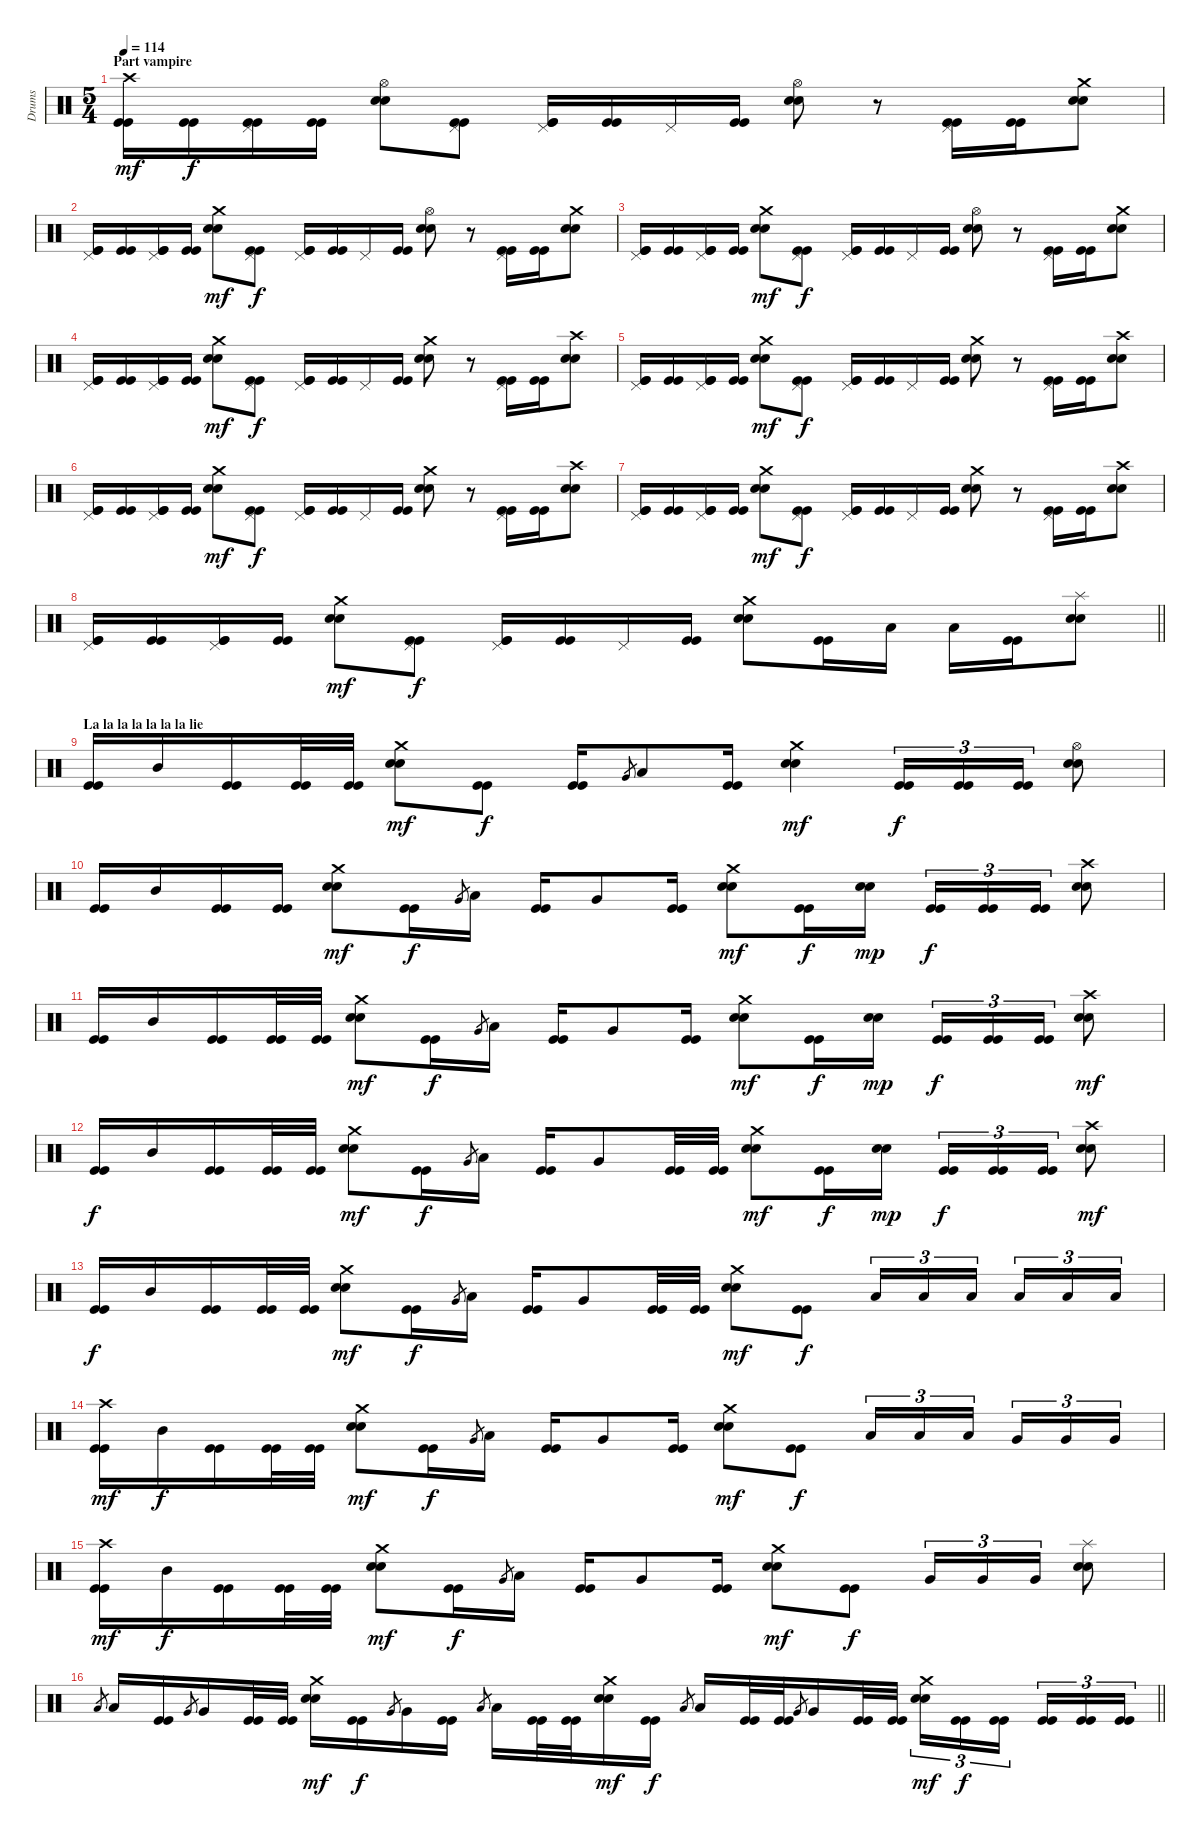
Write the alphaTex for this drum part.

\track ("Drums" "Drums") {instrument percussion}
\staff {score}
\articulation defaults
\ts (5 4)
\section ("" "Part vampire")
\tempo 114
\clef neutral
\ks c
("Kick (hit)" "Kick (hit)" "Crash high (hit)").16{dy mf} ("Kick (hit)" "Kick (hit)").16{dy f} ("Kick (hit)" "Kick (hit)" "Pedal Hi-Hat (hit)").16 ("Kick (hit)" "Kick (hit)").16 ("Electric Snare (hit)" "Snare (hit) 2" "Hi-Hat (open)").8 ("Kick (hit)" "Kick (hit)" "Pedal Hi-Hat (hit)").8 ("Kick (hit)" "Kick (hit)" "Pedal Hi-Hat (hit)").16 ("Kick (hit)" "Kick (hit)").16 "Pedal Hi-Hat (hit)".16 ("Kick (hit)" "Kick (hit)").16 ("Snare (hit) 2" "Electric Snare (hit)" "Hi-Hat (open)").8 r.8{volume 0} ("Kick (hit)" "Kick (hit)" "Pedal Hi-Hat (hit)").16{volume 16} ("Kick (hit)" "Kick (hit)").16 ("Snare (hit) 2" "Electric Snare (hit)" "Crash medium (hit)").8 |
("Kick (hit)" "Kick (hit)" "Pedal Hi-Hat (hit)").16 ("Kick (hit)" "Kick (hit)").16 ("Kick (hit)" "Kick (hit)" "Pedal Hi-Hat (hit)").16 ("Kick (hit)" "Kick (hit)").16 ("Electric Snare (hit)" "Snare (hit) 2" "Crash medium (hit)").8{dy mf} ("Kick (hit)" "Kick (hit)" "Pedal Hi-Hat (hit)").8{dy f} ("Kick (hit)" "Kick (hit)" "Pedal Hi-Hat (hit)").16 ("Kick (hit)" "Kick (hit)").16 "Pedal Hi-Hat (hit)".16 ("Kick (hit)" "Kick (hit)").16 ("Snare (hit) 2" "Electric Snare (hit)" "Hi-Hat (open)").8 r.8{volume 0} ("Kick (hit)" "Kick (hit)" "Pedal Hi-Hat (hit)").16{volume 16} ("Kick (hit)" "Kick (hit)").16 ("Snare (hit) 2" "Electric Snare (hit)" "Crash medium (hit)").8 |
("Kick (hit)" "Kick (hit)" "Pedal Hi-Hat (hit)").16 ("Kick (hit)" "Kick (hit)").16 ("Kick (hit)" "Kick (hit)" "Pedal Hi-Hat (hit)").16 ("Kick (hit)" "Kick (hit)").16 ("Electric Snare (hit)" "Snare (hit) 2" "Crash medium (hit)").8{dy mf} ("Kick (hit)" "Kick (hit)" "Pedal Hi-Hat (hit)").8{dy f} ("Kick (hit)" "Kick (hit)" "Pedal Hi-Hat (hit)").16 ("Kick (hit)" "Kick (hit)").16 "Pedal Hi-Hat (hit)".16 ("Kick (hit)" "Kick (hit)").16 ("Snare (hit) 2" "Electric Snare (hit)" "Hi-Hat (open)").8 r.8{volume 0} ("Kick (hit)" "Kick (hit)" "Pedal Hi-Hat (hit)").16{volume 16} ("Kick (hit)" "Kick (hit)").16 ("Snare (hit) 2" "Electric Snare (hit)" "Crash medium (hit)").8 |
("Kick (hit)" "Kick (hit)" "Pedal Hi-Hat (hit)").16 ("Kick (hit)" "Kick (hit)").16 ("Kick (hit)" "Kick (hit)" "Pedal Hi-Hat (hit)").16 ("Kick (hit)" "Kick (hit)").16 ("Electric Snare (hit)" "Snare (hit) 2" "Crash medium (hit)").8{dy mf} ("Kick (hit)" "Kick (hit)" "Pedal Hi-Hat (hit)").8{dy f} ("Kick (hit)" "Kick (hit)" "Pedal Hi-Hat (hit)").16 ("Kick (hit)" "Kick (hit)").16 "Pedal Hi-Hat (hit)".16 ("Kick (hit)" "Kick (hit)").16 ("Snare (hit) 2" "Electric Snare (hit)" "Crash medium (hit)").8 r.8{volume 0} ("Kick (hit)" "Kick (hit)" "Pedal Hi-Hat (hit)").16{volume 16} ("Kick (hit)" "Kick (hit)").16 ("Snare (hit) 2" "Electric Snare (hit)" "Crash high (hit)").8 |
("Kick (hit)" "Kick (hit)" "Pedal Hi-Hat (hit)").16 ("Kick (hit)" "Kick (hit)").16 ("Kick (hit)" "Kick (hit)" "Pedal Hi-Hat (hit)").16 ("Kick (hit)" "Kick (hit)").16 ("Electric Snare (hit)" "Snare (hit) 2" "Crash medium (hit)").8{dy mf} ("Kick (hit)" "Kick (hit)" "Pedal Hi-Hat (hit)").8{dy f} ("Kick (hit)" "Kick (hit)" "Pedal Hi-Hat (hit)").16 ("Kick (hit)" "Kick (hit)").16 "Pedal Hi-Hat (hit)".16 ("Kick (hit)" "Kick (hit)").16 ("Snare (hit) 2" "Electric Snare (hit)" "Crash medium (hit)").8 r.8{volume 0} ("Kick (hit)" "Kick (hit)" "Pedal Hi-Hat (hit)").16{volume 16} ("Kick (hit)" "Kick (hit)").16 ("Snare (hit) 2" "Electric Snare (hit)" "Crash high (hit)").8 |
("Kick (hit)" "Kick (hit)" "Pedal Hi-Hat (hit)").16 ("Kick (hit)" "Kick (hit)").16 ("Kick (hit)" "Kick (hit)" "Pedal Hi-Hat (hit)").16 ("Kick (hit)" "Kick (hit)").16 ("Electric Snare (hit)" "Snare (hit) 2" "Crash medium (hit)").8{dy mf} ("Kick (hit)" "Kick (hit)" "Pedal Hi-Hat (hit)").8{dy f} ("Kick (hit)" "Kick (hit)" "Pedal Hi-Hat (hit)").16 ("Kick (hit)" "Kick (hit)").16 "Pedal Hi-Hat (hit)".16 ("Kick (hit)" "Kick (hit)").16 ("Snare (hit) 2" "Electric Snare (hit)" "Crash medium (hit)").8 r.8{volume 0} ("Kick (hit)" "Kick (hit)" "Pedal Hi-Hat (hit)").16{volume 16} ("Kick (hit)" "Kick (hit)").16 ("Snare (hit) 2" "Electric Snare (hit)" "Crash high (hit)").8 |
("Kick (hit)" "Kick (hit)" "Pedal Hi-Hat (hit)").16 ("Kick (hit)" "Kick (hit)").16 ("Kick (hit)" "Kick (hit)" "Pedal Hi-Hat (hit)").16 ("Kick (hit)" "Kick (hit)").16 ("Electric Snare (hit)" "Snare (hit) 2" "Crash medium (hit)").8{dy mf} ("Kick (hit)" "Kick (hit)" "Pedal Hi-Hat (hit)").8{dy f} ("Kick (hit)" "Kick (hit)" "Pedal Hi-Hat (hit)").16 ("Kick (hit)" "Kick (hit)").16 "Pedal Hi-Hat (hit)".16 ("Kick (hit)" "Kick (hit)").16 ("Snare (hit) 2" "Electric Snare (hit)" "Crash medium (hit)").8 r.8{volume 0} ("Kick (hit)" "Kick (hit)" "Pedal Hi-Hat (hit)").16{volume 16} ("Kick (hit)" "Kick (hit)").16 ("Snare (hit) 2" "Electric Snare (hit)" "Crash high (hit)").8 |
\barLineRight lightlight
("Kick (hit)" "Kick (hit)" "Pedal Hi-Hat (hit)").16 ("Kick (hit)" "Kick (hit)").16 ("Kick (hit)" "Kick (hit)" "Pedal Hi-Hat (hit)").16 ("Kick (hit)" "Kick (hit)").16 ("Electric Snare (hit)" "Snare (hit) 2" "Crash medium (hit)").8{dy mf} ("Kick (hit)" "Kick (hit)" "Pedal Hi-Hat (hit)").8{dy f} ("Kick (hit)" "Kick (hit)" "Pedal Hi-Hat (hit)").16 ("Kick (hit)" "Kick (hit)").16 "Pedal Hi-Hat (hit)".16 ("Kick (hit)" "Kick (hit)").16 ("Snare (hit) 2" "Electric Snare (hit)" "Crash medium (hit)").8 ("Kick (hit)" "Kick (hit)").16 "Low Tom (hit)".16 "Low Tom (hit)".16 ("Kick (hit)" "Kick (hit)").16 ("Snare (hit) 2" "Electric Snare (hit)" "Splash (hit)").8 |
\section ("" "La la la la la la la lie")
("Kick (hit)" "Kick (hit)").16 "Mid Tom (hit)".16 ("Kick (hit)" "Kick (hit)").16 ("Kick (hit)" "Kick (hit)").32 ("Kick (hit)" "Kick (hit)").32 ("Snare (hit) 2" "Electric Snare (hit)" "Crash medium (hit)").8{dy mf} ("Kick (hit)" "Kick (hit)").8{dy f} ("Kick (hit)" "Kick (hit)").16 "Very Low Tom (hit)".8{gr} "Low Tom (hit)".8 ("Kick (hit)" "Kick (hit)").16 ("Snare (hit) 2" "Electric Snare (hit)" "Crash medium (hit)").4{dy mf} ("Kick (hit)" "Kick (hit)").16{tu (3 2) dy f} ("Kick (hit)" "Kick (hit)").16{tu (3 2)} ("Kick (hit)" "Kick (hit)").16{tu (3 2)} ("Snare (hit) 2" "Electric Snare (hit)" "Hi-Hat (open)").8 |
("Kick (hit)" "Kick (hit)").16 "Mid Tom (hit)".16 ("Kick (hit)" "Kick (hit)").16 ("Kick (hit)" "Kick (hit)").16 ("Snare (hit) 2" "Electric Snare (hit)" "Crash medium (hit)").8{dy mf} ("Kick (hit)" "Kick (hit)").16{dy f} "Very Low Tom (hit)".8{gr} "Low Tom (hit)".16 ("Kick (hit)" "Kick (hit)").16 "Very Low Tom (hit)".8 ("Kick (hit)" "Kick (hit)").16 ("Snare (hit) 2" "Electric Snare (hit)" "Crash medium (hit)").8{dy mf} ("Kick (hit)" "Kick (hit)").16{dy f} ("Snare (hit) 2" "Electric Snare (hit)").16{dy mp} ("Kick (hit)" "Kick (hit)").16{tu (3 2) dy f} ("Kick (hit)" "Kick (hit)").16{tu (3 2)} ("Kick (hit)" "Kick (hit)").16{tu (3 2)} ("Snare (hit) 2" "Electric Snare (hit)" "Crash high (hit)").8 |
("Kick (hit)" "Kick (hit)").16 "Mid Tom (hit)".16 ("Kick (hit)" "Kick (hit)").16 ("Kick (hit)" "Kick (hit)").32 ("Kick (hit)" "Kick (hit)").32 ("Snare (hit) 2" "Electric Snare (hit)" "Crash medium (hit)").8{dy mf} ("Kick (hit)" "Kick (hit)").16{dy f} "Very Low Tom (hit)".8{gr} "Low Tom (hit)".16 ("Kick (hit)" "Kick (hit)").16 "Very Low Tom (hit)".8 ("Kick (hit)" "Kick (hit)").16 ("Snare (hit) 2" "Electric Snare (hit)" "Crash medium (hit)").8{dy mf} ("Kick (hit)" "Kick (hit)").16{dy f} ("Snare (hit) 2" "Electric Snare (hit)").16{dy mp} ("Kick (hit)" "Kick (hit)").16{tu (3 2) dy f} ("Kick (hit)" "Kick (hit)").16{tu (3 2)} ("Kick (hit)" "Kick (hit)").16{tu (3 2)} ("Snare (hit) 2" "Electric Snare (hit)" "Crash high (hit)").8{dy mf} |
("Kick (hit)" "Kick (hit)").16{dy f} "Mid Tom (hit)".16 ("Kick (hit)" "Kick (hit)").16 ("Kick (hit)" "Kick (hit)").32 ("Kick (hit)" "Kick (hit)").32 ("Snare (hit) 2" "Electric Snare (hit)" "Crash medium (hit)").8{dy mf} ("Kick (hit)" "Kick (hit)").16{dy f} "Very Low Tom (hit)".8{gr} "Low Tom (hit)".16 ("Kick (hit)" "Kick (hit)").16 "Very Low Tom (hit)".8 ("Kick (hit)" "Kick (hit)").32 ("Kick (hit)" "Kick (hit)").32 ("Snare (hit) 2" "Electric Snare (hit)" "Crash medium (hit)").8{dy mf} ("Kick (hit)" "Kick (hit)").16{dy f} ("Snare (hit) 2" "Electric Snare (hit)").16{dy mp} ("Kick (hit)" "Kick (hit)").16{tu (3 2) dy f} ("Kick (hit)" "Kick (hit)").16{tu (3 2)} ("Kick (hit)" "Kick (hit)").16{tu (3 2)} ("Snare (hit) 2" "Electric Snare (hit)" "Crash high (hit)").8{dy mf} |
("Kick (hit)" "Kick (hit)").16{dy f} "Mid Tom (hit)".16 ("Kick (hit)" "Kick (hit)").16 ("Kick (hit)" "Kick (hit)").32 ("Kick (hit)" "Kick (hit)").32 ("Snare (hit) 2" "Electric Snare (hit)" "Crash medium (hit)").8{dy mf} ("Kick (hit)" "Kick (hit)").16{dy f} "Very Low Tom (hit)".8{gr} "Low Tom (hit)".16 ("Kick (hit)" "Kick (hit)").16 "Very Low Tom (hit)".8 ("Kick (hit)" "Kick (hit)").32 ("Kick (hit)" "Kick (hit)").32 ("Snare (hit) 2" "Electric Snare (hit)" "Crash medium (hit)").8{dy mf} ("Kick (hit)" "Kick (hit)").8{dy f} "Low Tom (hit)".16{tu (3 2)} "Low Tom (hit)".16{tu (3 2)} "Low Tom (hit)".16{tu (3 2)} "Low Tom (hit)".16{tu (3 2)} "Low Tom (hit)".16{tu (3 2)} "Low Tom (hit)".16{tu (3 2)} |
("Kick (hit)" "Kick (hit)" "Crash high (hit)").16{dy mf} "Mid Tom (hit)".16{dy f} ("Kick (hit)" "Kick (hit)").16 ("Kick (hit)" "Kick (hit)").32 ("Kick (hit)" "Kick (hit)").32 ("Snare (hit) 2" "Electric Snare (hit)" "Crash medium (hit)").8{dy mf} ("Kick (hit)" "Kick (hit)").16{dy f} "Very Low Tom (hit)".8{gr} "Low Tom (hit)".16 ("Kick (hit)" "Kick (hit)").16 "Very Low Tom (hit)".8 ("Kick (hit)" "Kick (hit)").16 ("Snare (hit) 2" "Electric Snare (hit)" "Crash medium (hit)").8{dy mf} ("Kick (hit)" "Kick (hit)").8{dy f} "Low Floor Tom (hit)".16{tu (3 2)} "Low Floor Tom (hit)".16{tu (3 2)} "Low Floor Tom (hit)".16{tu (3 2)} "Very Low Tom (hit)".16{tu (3 2)} "Very Low Tom (hit)".16{tu (3 2)} "Very Low Tom (hit)".16{tu (3 2)} |
("Kick (hit)" "Kick (hit)" "Crash high (hit)").16{dy mf} "Mid Tom (hit)".16{dy f} ("Kick (hit)" "Kick (hit)").16 ("Kick (hit)" "Kick (hit)").32 ("Kick (hit)" "Kick (hit)").32 ("Snare (hit) 2" "Electric Snare (hit)" "Crash medium (hit)").8{dy mf} ("Kick (hit)" "Kick (hit)").16{dy f} "Very Low Tom (hit)".8{gr} "Low Tom (hit)".16 ("Kick (hit)" "Kick (hit)").16 "Very Low Tom (hit)".8 ("Kick (hit)" "Kick (hit)").16 ("Snare (hit) 2" "Electric Snare (hit)" "Crash medium (hit)").8{dy mf} ("Kick (hit)" "Kick (hit)").8{dy f} "Very Low Tom (hit)".16{tu (3 2)} "Very Low Tom (hit)".16{tu (3 2)} "Very Low Tom (hit)".16{tu (3 2)} ("Snare (hit) 2" "Electric Snare (hit)" "Splash (hit)").8 |
\barLineRight lightlight "Low Tom (hit)".8{gr} "Low Tom (hit)".16
("Kick (hit)" "Kick (hit)").16 "Very Low Tom (hit)".8{gr} "Very Low Tom (hit)".16 ("Kick (hit)" "Kick (hit)").32 ("Kick (hit)" "Kick (hit)").32 ("Snare (hit) 2" "Electric Snare (hit)" "Crash medium (hit)").16{dy mf} ("Kick (hit)" "Kick (hit)").16{dy f} "Very Low Tom (hit)".8{gr} "Very Low Tom (hit)".16 ("Kick (hit)" "Kick (hit)").16 "Low Floor Tom (hit)".8{gr} "Low Floor Tom (hit)".16 ("Kick (hit)" "Kick (hit)").32 ("Kick (hit)" "Kick (hit)").32 ("Snare (hit) 2" "Electric Snare (hit)" "Crash medium (hit)").16{dy mf} ("Kick (hit)" "Kick (hit)").16{dy f} "Low Tom (hit)".8{gr} "Low Tom (hit)".16 ("Kick (hit)" "Kick (hit)").32 ("Kick (hit)" "Kick (hit)").32 "Very Low Tom (hit)".8{gr} "Very Low Tom (hit)".16 ("Kick (hit)" "Kick (hit)").32 ("Kick (hit)" "Kick (hit)").32 ("Snare (hit) 2" "Electric Snare (hit)" "Crash medium (hit)").16{tu (3 2) dy mf} ("Kick (hit)" "Kick (hit)").16{tu (3 2) dy f} ("Kick (hit)" "Kick (hit)").16{tu (3 2)} ("Kick (hit)" "Kick (hit)").16{tu (3 2)} ("Kick (hit)" "Kick (hit)").16{tu (3 2)} ("Kick (hit)" "Kick (hit)").16{tu (3 2)}
